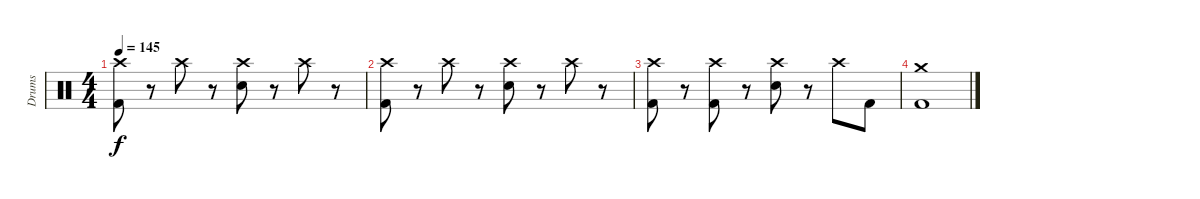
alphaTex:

\track ("Drums" "Drums") {instrument percussion}
\staff {score}
\articulation defaults
\ts (4 4)
\tempo 145
\clef neutral
\ks c
("Crash high (hit)" "Kick (hit) 2").8{dy f} r.8 "Crash high (hit)".8 r.8 ("Crash high (hit)" "Electric Snare (hit)").8 r.8 "Crash high (hit)".8 r.8 |
("Crash high (hit)" "Kick (hit) 2").8 r.8 "Crash high (hit)".8 r.8 ("Crash high (hit)" "Electric Snare (hit)").8 r.8 "Crash high (hit)".8 r.8 |
("Crash high (hit)" "Kick (hit) 2").8 r.8 ("Crash high (hit)" "Kick (hit) 2").8 r.8 ("Crash high (hit)" "Electric Snare (hit)").8 r.8 "Crash high (hit)".8 "Kick (hit) 2".8 |
("Crash medium (hit)" "Kick (hit) 2").1
